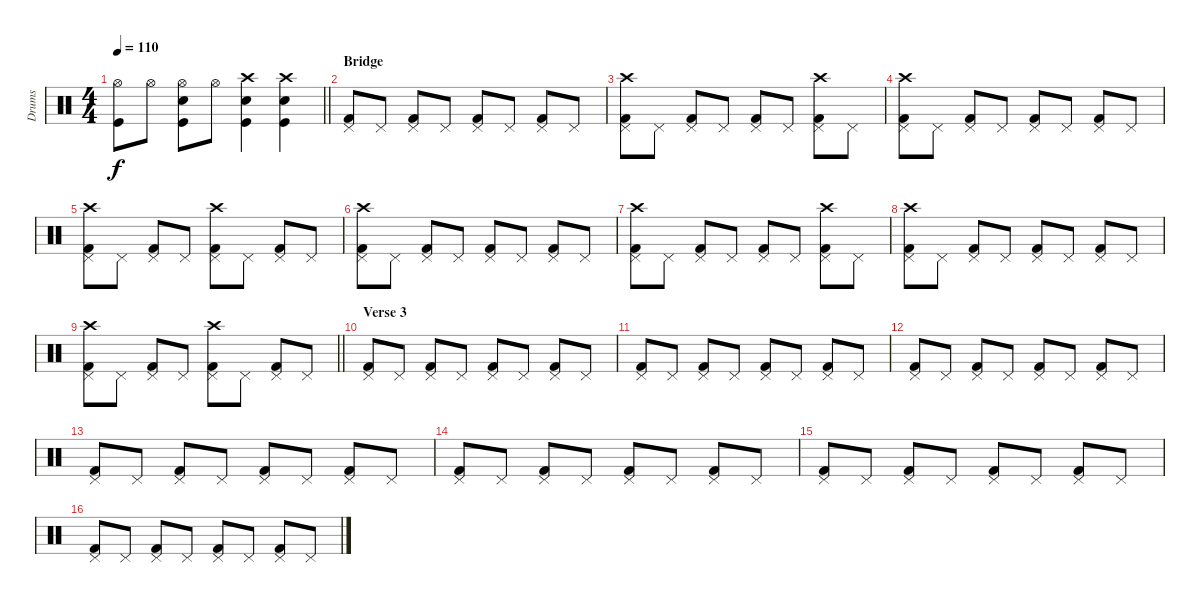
\track ("Drums" "Drums") {instrument percussion}
\staff {score}
\articulation defaults
\ts (4 4)
\tempo 110
\clef neutral
\barLineRight lightlight
\ks c
("Hi-Hat (open)" "Kick (hit)").8{dy f} "Hi-Hat (open)".8 ("Hi-Hat (open)" "Snare (hit) 2" "Kick (hit)").8 "Hi-Hat (open)".8 ("Crash high (hit)" "Snare (hit) 2" "Kick (hit)").4 ("Crash high (hit)" "Snare (hit) 2" "Kick (hit)").4 |
\section ("" "Bridge")
("Pedal Hi-Hat (hit)" "Kick (hit) 2").8 "Pedal Hi-Hat (hit)".8 ("Pedal Hi-Hat (hit)" "Kick (hit) 2").8 "Pedal Hi-Hat (hit)".8 ("Pedal Hi-Hat (hit)" "Kick (hit) 2").8 "Pedal Hi-Hat (hit)".8 ("Pedal Hi-Hat (hit)" "Kick (hit) 2").8 "Pedal Hi-Hat (hit)".8 |
("Crash high (hit)" "Pedal Hi-Hat (hit)" "Kick (hit) 2").8 "Pedal Hi-Hat (hit)".8 ("Pedal Hi-Hat (hit)" "Kick (hit) 2").8 "Pedal Hi-Hat (hit)".8 ("Pedal Hi-Hat (hit)" "Kick (hit) 2").8 "Pedal Hi-Hat (hit)".8 ("Crash high (hit)" "Pedal Hi-Hat (hit)" "Kick (hit) 2").8 "Pedal Hi-Hat (hit)".8 |
("Crash high (hit)" "Pedal Hi-Hat (hit)" "Kick (hit) 2").8 "Pedal Hi-Hat (hit)".8 ("Pedal Hi-Hat (hit)" "Kick (hit) 2").8 "Pedal Hi-Hat (hit)".8 ("Pedal Hi-Hat (hit)" "Kick (hit) 2").8 "Pedal Hi-Hat (hit)".8 ("Pedal Hi-Hat (hit)" "Kick (hit) 2").8 "Pedal Hi-Hat (hit)".8 |
("Crash high (hit)" "Pedal Hi-Hat (hit)" "Kick (hit) 2").8 "Pedal Hi-Hat (hit)".8 ("Pedal Hi-Hat (hit)" "Kick (hit) 2").8 "Pedal Hi-Hat (hit)".8 ("Crash high (hit)" "Pedal Hi-Hat (hit)" "Kick (hit) 2").8 "Pedal Hi-Hat (hit)".8 ("Pedal Hi-Hat (hit)" "Kick (hit) 2").8 "Pedal Hi-Hat (hit)".8 |
("Crash high (hit)" "Pedal Hi-Hat (hit)" "Kick (hit) 2").8 "Pedal Hi-Hat (hit)".8 ("Pedal Hi-Hat (hit)" "Kick (hit) 2").8 "Pedal Hi-Hat (hit)".8 ("Pedal Hi-Hat (hit)" "Kick (hit) 2").8 "Pedal Hi-Hat (hit)".8 ("Pedal Hi-Hat (hit)" "Kick (hit) 2").8 "Pedal Hi-Hat (hit)".8 |
("Crash high (hit)" "Pedal Hi-Hat (hit)" "Kick (hit) 2").8 "Pedal Hi-Hat (hit)".8 ("Pedal Hi-Hat (hit)" "Kick (hit) 2").8 "Pedal Hi-Hat (hit)".8 ("Pedal Hi-Hat (hit)" "Kick (hit) 2").8 "Pedal Hi-Hat (hit)".8 ("Crash high (hit)" "Pedal Hi-Hat (hit)" "Kick (hit) 2").8 "Pedal Hi-Hat (hit)".8 |
("Crash high (hit)" "Pedal Hi-Hat (hit)" "Kick (hit) 2").8 "Pedal Hi-Hat (hit)".8 ("Pedal Hi-Hat (hit)" "Kick (hit) 2").8 "Pedal Hi-Hat (hit)".8 ("Pedal Hi-Hat (hit)" "Kick (hit) 2").8 "Pedal Hi-Hat (hit)".8 ("Pedal Hi-Hat (hit)" "Kick (hit) 2").8 "Pedal Hi-Hat (hit)".8 |
\barLineRight lightlight
("Crash high (hit)" "Pedal Hi-Hat (hit)" "Kick (hit) 2").8 "Pedal Hi-Hat (hit)".8 ("Pedal Hi-Hat (hit)" "Kick (hit) 2").8 "Pedal Hi-Hat (hit)".8 ("Crash high (hit)" "Pedal Hi-Hat (hit)" "Kick (hit) 2").8 "Pedal Hi-Hat (hit)".8 ("Pedal Hi-Hat (hit)" "Kick (hit) 2").8 "Pedal Hi-Hat (hit)".8 |
\section ("" "Verse 3")
("Pedal Hi-Hat (hit)" "Kick (hit) 2").8 "Pedal Hi-Hat (hit)".8 ("Pedal Hi-Hat (hit)" "Kick (hit) 2").8 "Pedal Hi-Hat (hit)".8 ("Pedal Hi-Hat (hit)" "Kick (hit) 2").8 "Pedal Hi-Hat (hit)".8 ("Pedal Hi-Hat (hit)" "Kick (hit) 2").8 "Pedal Hi-Hat (hit)".8 |
("Pedal Hi-Hat (hit)" "Kick (hit) 2").8 "Pedal Hi-Hat (hit)".8 ("Pedal Hi-Hat (hit)" "Kick (hit) 2").8 "Pedal Hi-Hat (hit)".8 ("Pedal Hi-Hat (hit)" "Kick (hit) 2").8 "Pedal Hi-Hat (hit)".8 ("Pedal Hi-Hat (hit)" "Kick (hit) 2").8 "Pedal Hi-Hat (hit)".8 |
("Pedal Hi-Hat (hit)" "Kick (hit) 2").8 "Pedal Hi-Hat (hit)".8 ("Pedal Hi-Hat (hit)" "Kick (hit) 2").8 "Pedal Hi-Hat (hit)".8 ("Pedal Hi-Hat (hit)" "Kick (hit) 2").8 "Pedal Hi-Hat (hit)".8 ("Pedal Hi-Hat (hit)" "Kick (hit) 2").8 "Pedal Hi-Hat (hit)".8 |
("Pedal Hi-Hat (hit)" "Kick (hit) 2").8 "Pedal Hi-Hat (hit)".8 ("Pedal Hi-Hat (hit)" "Kick (hit) 2").8 "Pedal Hi-Hat (hit)".8 ("Pedal Hi-Hat (hit)" "Kick (hit) 2").8 "Pedal Hi-Hat (hit)".8 ("Pedal Hi-Hat (hit)" "Kick (hit) 2").8 "Pedal Hi-Hat (hit)".8 |
("Pedal Hi-Hat (hit)" "Kick (hit) 2").8 "Pedal Hi-Hat (hit)".8 ("Pedal Hi-Hat (hit)" "Kick (hit) 2").8 "Pedal Hi-Hat (hit)".8 ("Pedal Hi-Hat (hit)" "Kick (hit) 2").8 "Pedal Hi-Hat (hit)".8 ("Pedal Hi-Hat (hit)" "Kick (hit) 2").8 "Pedal Hi-Hat (hit)".8 |
("Pedal Hi-Hat (hit)" "Kick (hit) 2").8 "Pedal Hi-Hat (hit)".8 ("Pedal Hi-Hat (hit)" "Kick (hit) 2").8 "Pedal Hi-Hat (hit)".8 ("Pedal Hi-Hat (hit)" "Kick (hit) 2").8 "Pedal Hi-Hat (hit)".8 ("Pedal Hi-Hat (hit)" "Kick (hit) 2").8 "Pedal Hi-Hat (hit)".8 |
("Pedal Hi-Hat (hit)" "Kick (hit) 2").8 "Pedal Hi-Hat (hit)".8 ("Pedal Hi-Hat (hit)" "Kick (hit) 2").8 "Pedal Hi-Hat (hit)".8 ("Pedal Hi-Hat (hit)" "Kick (hit) 2").8 "Pedal Hi-Hat (hit)".8 ("Pedal Hi-Hat (hit)" "Kick (hit) 2").8 "Pedal Hi-Hat (hit)".8
